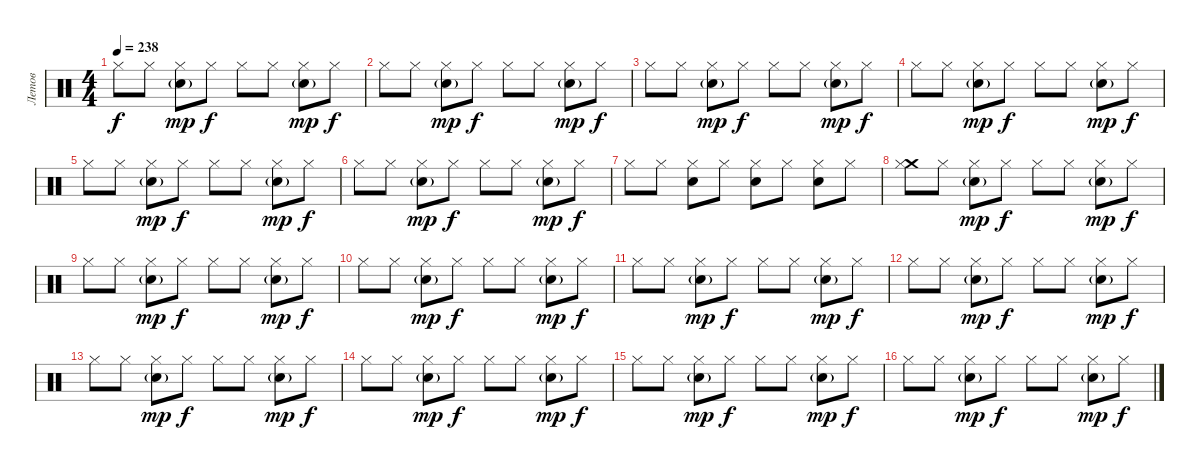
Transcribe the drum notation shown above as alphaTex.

\track ("Летов" "Летов") {instrument percussion}
\staff {score}
\articulation defaults
\ts (4 4)
\tempo 238
\clef neutral
\ks c "Hi-Hat (closed)".8{dy f} "Hi-Hat (closed)".8
("Hi-Hat (closed)" "Snare (hit) 2"{g}).8{dy mp} "Hi-Hat (closed)".8{dy f} "Hi-Hat (closed)".8 "Hi-Hat (closed)".8 ("Hi-Hat (closed)" "Snare (hit) 2"{g}).8{dy mp} "Hi-Hat (closed)".8{dy f} |
"Hi-Hat (closed)".8 "Hi-Hat (closed)".8 ("Hi-Hat (closed)" "Snare (hit) 2"{g}).8{dy mp} "Hi-Hat (closed)".8{dy f} "Hi-Hat (closed)".8 "Hi-Hat (closed)".8 ("Hi-Hat (closed)" "Snare (hit) 2"{g}).8{dy mp} "Hi-Hat (closed)".8{dy f} |
"Hi-Hat (closed)".8 "Hi-Hat (closed)".8 ("Hi-Hat (closed)" "Snare (hit) 2"{g}).8{dy mp} "Hi-Hat (closed)".8{dy f} "Hi-Hat (closed)".8 "Hi-Hat (closed)".8 ("Hi-Hat (closed)" "Snare (hit) 2"{g}).8{dy mp} "Hi-Hat (closed)".8{dy f} |
"Hi-Hat (closed)".8 "Hi-Hat (closed)".8 ("Hi-Hat (closed)" "Snare (hit) 2"{g}).8{dy mp} "Hi-Hat (closed)".8{dy f} "Hi-Hat (closed)".8 "Hi-Hat (closed)".8 ("Hi-Hat (closed)" "Snare (hit) 2"{g}).8{dy mp} "Hi-Hat (closed)".8{dy f} |
"Hi-Hat (closed)".8 "Hi-Hat (closed)".8 ("Hi-Hat (closed)" "Snare (hit) 2"{g}).8{dy mp} "Hi-Hat (closed)".8{dy f} "Hi-Hat (closed)".8 "Hi-Hat (closed)".8 ("Hi-Hat (closed)" "Snare (hit) 2"{g}).8{dy mp} "Hi-Hat (closed)".8{dy f} |
"Hi-Hat (closed)".8 "Hi-Hat (closed)".8 ("Hi-Hat (closed)" "Snare (hit) 2"{g}).8{dy mp} "Hi-Hat (closed)".8{dy f} "Hi-Hat (closed)".8 "Hi-Hat (closed)".8 ("Hi-Hat (closed)" "Snare (hit) 2"{g}).8{dy mp} "Hi-Hat (closed)".8{dy f} |
"Hi-Hat (closed)".8 "Hi-Hat (closed)".8 ("Hi-Hat (closed)" "Snare (hit) 2").8 "Hi-Hat (closed)".8 ("Hi-Hat (closed)" "Snare (hit) 2").8 "Hi-Hat (closed)".8 ("Hi-Hat (closed)" "Snare (hit) 2").8 "Hi-Hat (closed)".8 |
("Crash medium (hit)" "Hi-Hat (closed)").8 "Hi-Hat (closed)".8 ("Hi-Hat (closed)" "Snare (hit) 2"{g}).8{dy mp} "Hi-Hat (closed)".8{dy f} "Hi-Hat (closed)".8 "Hi-Hat (closed)".8 ("Hi-Hat (closed)" "Snare (hit) 2"{g}).8{dy mp} "Hi-Hat (closed)".8{dy f} |
"Hi-Hat (closed)".8 "Hi-Hat (closed)".8 ("Hi-Hat (closed)" "Snare (hit) 2"{g}).8{dy mp} "Hi-Hat (closed)".8{dy f} "Hi-Hat (closed)".8 "Hi-Hat (closed)".8 ("Hi-Hat (closed)" "Snare (hit) 2"{g}).8{dy mp} "Hi-Hat (closed)".8{dy f} |
"Hi-Hat (closed)".8 "Hi-Hat (closed)".8 ("Hi-Hat (closed)" "Snare (hit) 2"{g}).8{dy mp} "Hi-Hat (closed)".8{dy f} "Hi-Hat (closed)".8 "Hi-Hat (closed)".8 ("Hi-Hat (closed)" "Snare (hit) 2"{g}).8{dy mp} "Hi-Hat (closed)".8{dy f} |
"Hi-Hat (closed)".8 "Hi-Hat (closed)".8 ("Hi-Hat (closed)" "Snare (hit) 2"{g}).8{dy mp} "Hi-Hat (closed)".8{dy f} "Hi-Hat (closed)".8 "Hi-Hat (closed)".8 ("Hi-Hat (closed)" "Snare (hit) 2"{g}).8{dy mp} "Hi-Hat (closed)".8{dy f} |
"Hi-Hat (closed)".8 "Hi-Hat (closed)".8 ("Hi-Hat (closed)" "Snare (hit) 2"{g}).8{dy mp} "Hi-Hat (closed)".8{dy f} "Hi-Hat (closed)".8 "Hi-Hat (closed)".8 ("Hi-Hat (closed)" "Snare (hit) 2"{g}).8{dy mp} "Hi-Hat (closed)".8{dy f} |
"Hi-Hat (closed)".8 "Hi-Hat (closed)".8 ("Hi-Hat (closed)" "Snare (hit) 2"{g}).8{dy mp} "Hi-Hat (closed)".8{dy f} "Hi-Hat (closed)".8 "Hi-Hat (closed)".8 ("Hi-Hat (closed)" "Snare (hit) 2"{g}).8{dy mp} "Hi-Hat (closed)".8{dy f} |
"Hi-Hat (closed)".8 "Hi-Hat (closed)".8 ("Hi-Hat (closed)" "Snare (hit) 2"{g}).8{dy mp} "Hi-Hat (closed)".8{dy f} "Hi-Hat (closed)".8 "Hi-Hat (closed)".8 ("Hi-Hat (closed)" "Snare (hit) 2"{g}).8{dy mp} "Hi-Hat (closed)".8{dy f} |
"Hi-Hat (closed)".8 "Hi-Hat (closed)".8 ("Hi-Hat (closed)" "Snare (hit) 2"{g}).8{dy mp} "Hi-Hat (closed)".8{dy f} "Hi-Hat (closed)".8 "Hi-Hat (closed)".8 ("Hi-Hat (closed)" "Snare (hit) 2"{g}).8{dy mp} "Hi-Hat (closed)".8{dy f} |
"Hi-Hat (closed)".8 "Hi-Hat (closed)".8 ("Hi-Hat (closed)" "Snare (hit) 2"{g}).8{dy mp} "Hi-Hat (closed)".8{dy f} "Hi-Hat (closed)".8 "Hi-Hat (closed)".8 ("Hi-Hat (closed)" "Snare (hit) 2"{g}).8{dy mp} "Hi-Hat (closed)".8{dy f}
